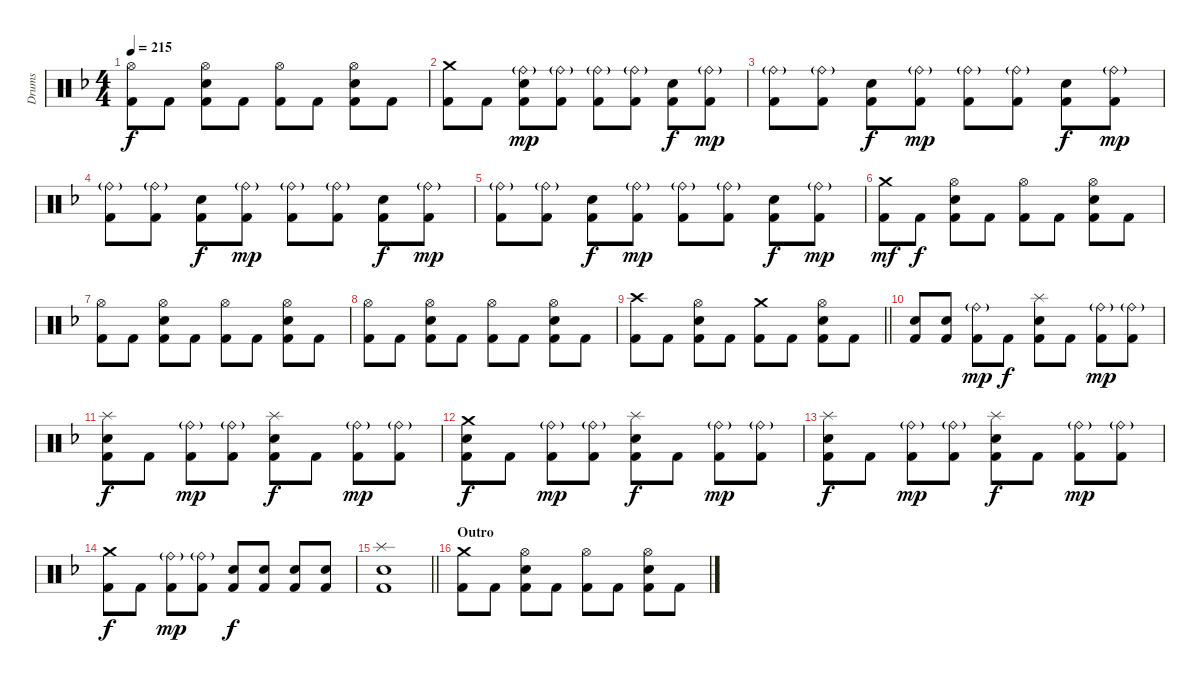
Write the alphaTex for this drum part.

\track ("Drums" "Drums") {instrument percussion}
\staff {score}
\articulation defaults
\ts (4 4)
\tempo 215
\clef neutral
\ks f
("Hi-Hat (open)" "Kick (hit) 2").8{dy f} "Kick (hit) 2".8 ("Hi-Hat (open)" "Snare (hit) 2" "Kick (hit) 2").8 "Kick (hit) 2".8 ("Hi-Hat (open)" "Kick (hit) 2").8 "Kick (hit) 2".8 ("Hi-Hat (open)" "Snare (hit) 2" "Kick (hit) 2").8 "Kick (hit) 2".8 |
("Crash medium (hit)" "Kick (hit) 2").8 "Kick (hit) 2".8 ("Ride (bell)"{g} "Snare (hit) 2" "Kick (hit) 2").8{dy mp} ("Ride (bell)"{g} "Kick (hit) 2").8 ("Ride (bell)"{g} "Kick (hit) 2").8 ("Ride (bell)"{g} "Kick (hit) 2").8 ("Snare (hit) 2" "Kick (hit) 2").8{dy f} ("Ride (bell)"{g} "Kick (hit) 2").8{dy mp} |
("Ride (bell)"{g} "Kick (hit) 2").8 ("Ride (bell)"{g} "Kick (hit) 2").8 ("Snare (hit) 2" "Kick (hit) 2").8{dy f} ("Ride (bell)"{g} "Kick (hit) 2").8{dy mp} ("Ride (bell)"{g} "Kick (hit) 2").8 ("Ride (bell)"{g} "Kick (hit) 2").8 ("Snare (hit) 2" "Kick (hit) 2").8{dy f} ("Ride (bell)"{g} "Kick (hit) 2").8{dy mp} |
("Ride (bell)"{g} "Kick (hit) 2").8 ("Ride (bell)"{g} "Kick (hit) 2").8 ("Snare (hit) 2" "Kick (hit) 2").8{dy f} ("Ride (bell)"{g} "Kick (hit) 2").8{dy mp} ("Ride (bell)"{g} "Kick (hit) 2").8 ("Ride (bell)"{g} "Kick (hit) 2").8 ("Snare (hit) 2" "Kick (hit) 2").8{dy f} ("Ride (bell)"{g} "Kick (hit) 2").8{dy mp} |
("Ride (bell)"{g} "Kick (hit) 2").8 ("Ride (bell)"{g} "Kick (hit) 2").8 ("Snare (hit) 2" "Kick (hit) 2").8{dy f} ("Ride (bell)"{g} "Kick (hit) 2").8{dy mp} ("Ride (bell)"{g} "Kick (hit) 2").8 ("Ride (bell)"{g} "Kick (hit) 2").8 ("Snare (hit) 2" "Kick (hit) 2").8{dy f} ("Ride (bell)"{g} "Kick (hit) 2").8{dy mp} |
("Crash medium (hit)" "Kick (hit) 2").8{dy mf} "Kick (hit) 2".8{dy f} ("Hi-Hat (open)" "Snare (hit) 2" "Kick (hit) 2").8 "Kick (hit) 2".8 ("Hi-Hat (open)" "Kick (hit) 2").8 "Kick (hit) 2".8 ("Hi-Hat (open)" "Snare (hit) 2" "Kick (hit) 2").8 "Kick (hit) 2".8 |
("Hi-Hat (open)" "Kick (hit) 2").8 "Kick (hit) 2".8 ("Hi-Hat (open)" "Snare (hit) 2" "Kick (hit) 2").8 "Kick (hit) 2".8 ("Hi-Hat (open)" "Kick (hit) 2").8 "Kick (hit) 2".8 ("Hi-Hat (open)" "Snare (hit) 2" "Kick (hit) 2").8 "Kick (hit) 2".8 |
("Hi-Hat (open)" "Kick (hit) 2").8 "Kick (hit) 2".8 ("Hi-Hat (open)" "Snare (hit) 2" "Kick (hit) 2").8 "Kick (hit) 2".8 ("Hi-Hat (open)" "Kick (hit) 2").8 "Kick (hit) 2".8 ("Hi-Hat (open)" "Snare (hit) 2" "Kick (hit) 2").8 "Kick (hit) 2".8 |
\barLineRight lightlight
("Crash high (hit)" "Kick (hit) 2").8 "Kick (hit) 2".8 ("Hi-Hat (open)" "Snare (hit) 2" "Kick (hit) 2").8 "Kick (hit) 2".8 ("Crash medium (hit)" "Kick (hit) 2").8 "Kick (hit) 2".8 ("Hi-Hat (open)" "Snare (hit) 2" "Kick (hit) 2").8 "Kick (hit) 2".8 |
\section ("" "")
("Snare (hit) 2" "Kick (hit) 2").8 ("Snare (hit) 2" "Kick (hit) 2").8 ("Ride (bell)"{g} "Kick (hit) 2").8{dy mp} "Kick (hit) 2".8{dy f} ("Splash (hit)" "Snare (hit) 2" "Kick (hit) 2").8 "Kick (hit) 2".8 ("Ride (bell)"{g} "Kick (hit) 2").8{dy mp} ("Ride (bell)"{g} "Kick (hit) 2").8 |
("Splash (hit)" "Snare (hit) 2" "Kick (hit) 2").8{dy f} "Kick (hit) 2".8 ("Ride (bell)"{g} "Kick (hit) 2").8{dy mp} ("Ride (bell)"{g} "Kick (hit) 2").8 ("Splash (hit)" "Snare (hit) 2" "Kick (hit) 2").8{dy f} "Kick (hit) 2".8 ("Ride (bell)"{g} "Kick (hit) 2").8{dy mp} ("Ride (bell)"{g} "Kick (hit) 2").8 |
("Crash medium (hit)" "Snare (hit) 2" "Kick (hit) 2").8{dy f} "Kick (hit) 2".8 ("Ride (bell)"{g} "Kick (hit) 2").8{dy mp} ("Ride (bell)"{g} "Kick (hit) 2").8 ("Splash (hit)" "Snare (hit) 2" "Kick (hit) 2").8{dy f} "Kick (hit) 2".8 ("Ride (bell)"{g} "Kick (hit) 2").8{dy mp} ("Ride (bell)"{g} "Kick (hit) 2").8 |
("Splash (hit)" "Snare (hit) 2" "Kick (hit) 2").8{dy f} "Kick (hit) 2".8 ("Ride (bell)"{g} "Kick (hit) 2").8{dy mp} ("Ride (bell)"{g} "Kick (hit) 2").8 ("Splash (hit)" "Snare (hit) 2" "Kick (hit) 2").8{dy f} "Kick (hit) 2".8 ("Ride (bell)"{g} "Kick (hit) 2").8{dy mp} ("Ride (bell)"{g} "Kick (hit) 2").8 |
("Crash medium (hit)" "Kick (hit) 2").8{dy f} "Kick (hit) 2".8 ("Ride (bell)"{g} "Kick (hit) 2").8{dy mp} ("Ride (bell)"{g} "Kick (hit) 2").8 ("Snare (hit) 2" "Kick (hit) 2").8{dy f} ("Snare (hit) 2" "Kick (hit) 2").8 ("Snare (hit) 2" "Kick (hit) 2").8 ("Snare (hit) 2" "Kick (hit) 2").8 |
\barLineRight lightlight
("Splash (hit)" "Snare (hit) 2" "Kick (hit) 2").1 |
\section ("" "Outro")
("Crash medium (hit)" "Kick (hit) 2").8 "Kick (hit) 2".8 ("Hi-Hat (open)" "Snare (hit) 2" "Kick (hit) 2").8 "Kick (hit) 2".8 ("Hi-Hat (open)" "Kick (hit) 2").8 "Kick (hit) 2".8 ("Hi-Hat (open)" "Snare (hit) 2" "Kick (hit) 2").8 "Kick (hit) 2".8
